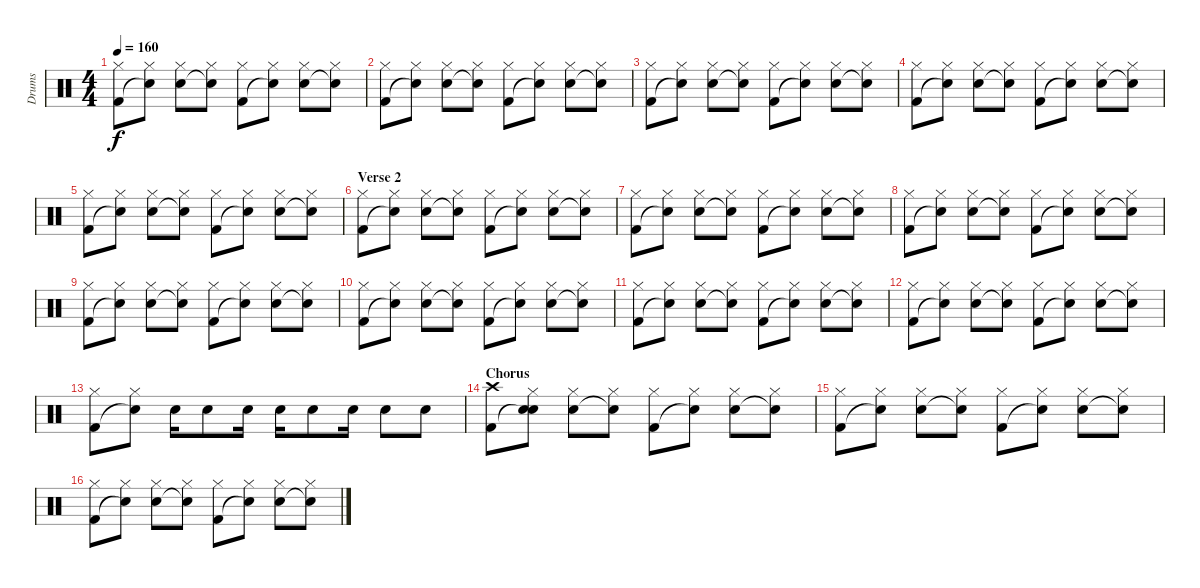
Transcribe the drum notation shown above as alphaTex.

\track ("Drums" "Drums") {instrument percussion}
\staff {score}
\articulation defaults
\ts (4 4)
\tempo 160
\clef neutral
\ks c
("Kick (hit) 2" "Hi-Hat (closed)").8{dy f} ("Snare (hit)"{t} "Hi-Hat (closed)").8 ("Snare (hit) 2" "Hi-Hat (closed)").8 ("Snare (hit)"{t} "Hi-Hat (closed)").8 ("Kick (hit) 2" "Hi-Hat (closed)").8 ("Snare (hit)"{t} "Hi-Hat (closed)").8 ("Snare (hit) 2" "Hi-Hat (closed)").8 ("Snare (hit)"{t} "Hi-Hat (closed)").8 |
("Kick (hit) 2" "Hi-Hat (closed)").8 ("Snare (hit)"{t} "Hi-Hat (closed)").8 ("Snare (hit) 2" "Hi-Hat (closed)").8 ("Snare (hit)"{t} "Hi-Hat (closed)").8 ("Kick (hit) 2" "Hi-Hat (closed)").8 ("Snare (hit)"{t} "Hi-Hat (closed)").8 ("Snare (hit) 2" "Hi-Hat (closed)").8 ("Snare (hit)"{t} "Hi-Hat (closed)").8 |
("Kick (hit) 2" "Hi-Hat (closed)").8 ("Snare (hit)"{t} "Hi-Hat (closed)").8 ("Snare (hit) 2" "Hi-Hat (closed)").8 ("Snare (hit)"{t} "Hi-Hat (closed)").8 ("Kick (hit) 2" "Hi-Hat (closed)").8 ("Snare (hit)"{t} "Hi-Hat (closed)").8 ("Snare (hit) 2" "Hi-Hat (closed)").8 ("Snare (hit)"{t} "Hi-Hat (closed)").8 |
("Kick (hit) 2" "Hi-Hat (closed)").8 ("Snare (hit)"{t} "Hi-Hat (closed)").8 ("Snare (hit) 2" "Hi-Hat (closed)").8 ("Snare (hit)"{t} "Hi-Hat (closed)").8 ("Kick (hit) 2" "Hi-Hat (closed)").8 ("Snare (hit)"{t} "Hi-Hat (closed)").8 ("Snare (hit) 2" "Hi-Hat (closed)").8 ("Snare (hit)"{t} "Hi-Hat (closed)").8 |
("Kick (hit) 2" "Hi-Hat (closed)").8 ("Snare (hit)"{t} "Hi-Hat (closed)").8 ("Snare (hit) 2" "Hi-Hat (closed)").8 ("Snare (hit)"{t} "Hi-Hat (closed)").8 ("Kick (hit) 2" "Hi-Hat (closed)").8 ("Snare (hit)"{t} "Hi-Hat (closed)").8 ("Snare (hit) 2" "Hi-Hat (closed)").8 ("Snare (hit)"{t} "Hi-Hat (closed)").8 |
\section ("" "Verse 2")
("Kick (hit) 2" "Hi-Hat (closed)").8 ("Snare (hit)"{t} "Hi-Hat (closed)").8 ("Snare (hit) 2" "Hi-Hat (closed)").8 ("Snare (hit)"{t} "Hi-Hat (closed)").8 ("Kick (hit) 2" "Hi-Hat (closed)").8 ("Snare (hit)"{t} "Hi-Hat (closed)").8 ("Snare (hit) 2" "Hi-Hat (closed)").8 ("Snare (hit)"{t} "Hi-Hat (closed)").8 |
("Kick (hit) 2" "Hi-Hat (closed)").8 ("Snare (hit)"{t} "Hi-Hat (closed)").8 ("Snare (hit) 2" "Hi-Hat (closed)").8 ("Snare (hit)"{t} "Hi-Hat (closed)").8 ("Kick (hit) 2" "Hi-Hat (closed)").8 ("Snare (hit)"{t} "Hi-Hat (closed)").8 ("Snare (hit) 2" "Hi-Hat (closed)").8 ("Snare (hit)"{t} "Hi-Hat (closed)").8 |
("Kick (hit) 2" "Hi-Hat (closed)").8 ("Snare (hit)"{t} "Hi-Hat (closed)").8 ("Snare (hit) 2" "Hi-Hat (closed)").8 ("Snare (hit)"{t} "Hi-Hat (closed)").8 ("Kick (hit) 2" "Hi-Hat (closed)").8 ("Snare (hit)"{t} "Hi-Hat (closed)").8 ("Snare (hit) 2" "Hi-Hat (closed)").8 ("Snare (hit)"{t} "Hi-Hat (closed)").8 |
("Kick (hit) 2" "Hi-Hat (closed)").8 ("Snare (hit)"{t} "Hi-Hat (closed)").8 ("Snare (hit) 2" "Hi-Hat (closed)").8 ("Snare (hit)"{t} "Hi-Hat (closed)").8 ("Kick (hit) 2" "Hi-Hat (closed)").8 ("Snare (hit)"{t} "Hi-Hat (closed)").8 ("Snare (hit) 2" "Hi-Hat (closed)").8 ("Snare (hit)"{t} "Hi-Hat (closed)").8 |
("Kick (hit) 2" "Hi-Hat (closed)").8 ("Snare (hit)"{t} "Hi-Hat (closed)").8 ("Snare (hit) 2" "Hi-Hat (closed)").8 ("Snare (hit)"{t} "Hi-Hat (closed)").8 ("Kick (hit) 2" "Hi-Hat (closed)").8 ("Snare (hit)"{t} "Hi-Hat (closed)").8 ("Snare (hit) 2" "Hi-Hat (closed)").8 ("Snare (hit)"{t} "Hi-Hat (closed)").8 |
("Kick (hit) 2" "Hi-Hat (closed)").8 ("Snare (hit)"{t} "Hi-Hat (closed)").8 ("Snare (hit) 2" "Hi-Hat (closed)").8 ("Snare (hit)"{t} "Hi-Hat (closed)").8 ("Kick (hit) 2" "Hi-Hat (closed)").8 ("Snare (hit)"{t} "Hi-Hat (closed)").8 ("Snare (hit) 2" "Hi-Hat (closed)").8 ("Snare (hit)"{t} "Hi-Hat (closed)").8 |
("Kick (hit) 2" "Hi-Hat (closed)").8 ("Snare (hit)"{t} "Hi-Hat (closed)").8 ("Snare (hit) 2" "Hi-Hat (closed)").8 ("Snare (hit)"{t} "Hi-Hat (closed)").8 ("Kick (hit) 2" "Hi-Hat (closed)").8 ("Snare (hit)"{t} "Hi-Hat (closed)").8 ("Snare (hit) 2" "Hi-Hat (closed)").8 ("Snare (hit)"{t} "Hi-Hat (closed)").8 |
("Kick (hit) 2" "Hi-Hat (closed)").8 ("Snare (hit)"{t} "Hi-Hat (closed)").8 "Snare (hit) 2".16 "Snare (hit) 2".8 "Snare (hit) 2".16 "Snare (hit) 2".16 "Snare (hit) 2".8 "Snare (hit) 2".16 "Snare (hit) 2".8 "Snare (hit) 2".8 |
\section ("" "Chorus")
("Kick (hit) 2" "Crash high (hit)").8 ("Snare (hit)"{t} "Hi-Hat (closed)" "Snare (hit)").8 ("Snare (hit) 2" "Hi-Hat (closed)").8 ("Snare (hit)"{t} "Hi-Hat (closed)").8 ("Kick (hit) 2" "Hi-Hat (closed)").8 ("Snare (hit)"{t} "Hi-Hat (closed)").8 ("Snare (hit) 2" "Hi-Hat (closed)").8 ("Snare (hit)"{t} "Hi-Hat (closed)").8 |
("Kick (hit) 2" "Hi-Hat (closed)").8 ("Snare (hit)"{t} "Hi-Hat (closed)").8 ("Snare (hit) 2" "Hi-Hat (closed)").8 ("Snare (hit)"{t} "Hi-Hat (closed)").8 ("Kick (hit) 2" "Hi-Hat (closed)").8 ("Snare (hit)"{t} "Hi-Hat (closed)").8 ("Snare (hit) 2" "Hi-Hat (closed)").8 ("Snare (hit)"{t} "Hi-Hat (closed)").8 |
("Kick (hit) 2" "Hi-Hat (closed)").8 ("Snare (hit)"{t} "Hi-Hat (closed)").8 ("Snare (hit) 2" "Hi-Hat (closed)").8 ("Snare (hit)"{t} "Hi-Hat (closed)").8 ("Kick (hit) 2" "Hi-Hat (closed)").8 ("Snare (hit)"{t} "Hi-Hat (closed)").8 ("Snare (hit) 2" "Hi-Hat (closed)").8 ("Snare (hit)"{t} "Hi-Hat (closed)").8
